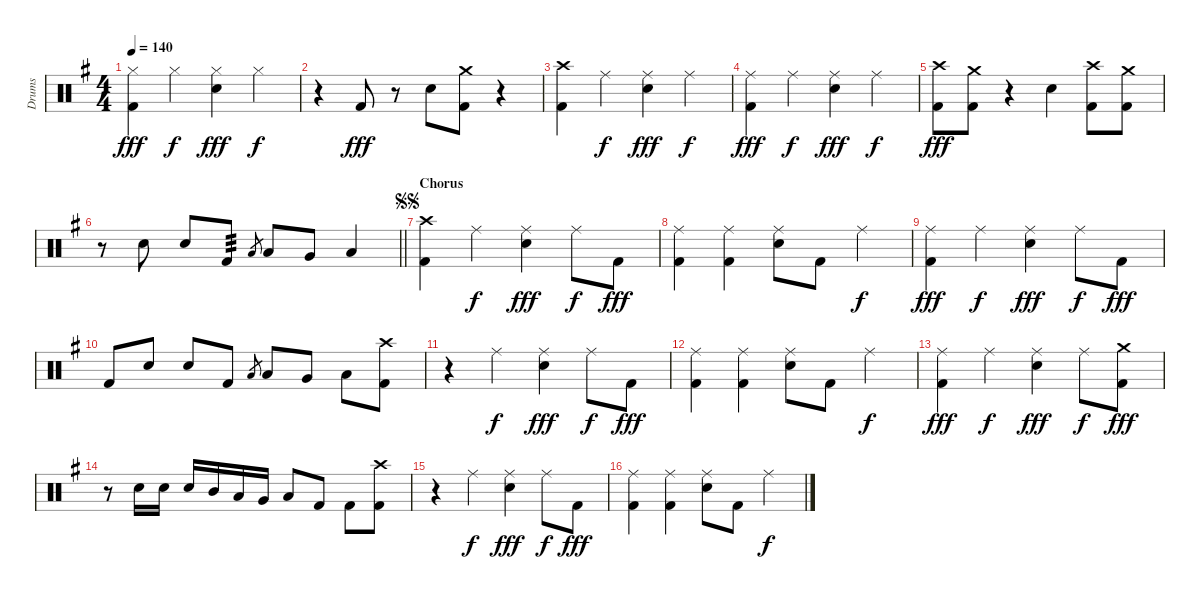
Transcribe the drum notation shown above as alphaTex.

\track ("Drums" "Drums") {instrument percussion}
\staff {score}
\articulation defaults
\ts (4 4)
\tempo 140
\clef neutral
\ks eminor
("Hi-Hat (closed)" "Kick (hit) 2").4{dy fff} "Hi-Hat (closed)".4{dy f} ("Electric Snare (hit)" "Hi-Hat (closed)").4{dy fff} "Hi-Hat (closed)".4{dy f} |
r.4 "Kick (hit) 2".8{dy fff} r.8 "Electric Snare (hit)".8 ("Crash medium (hit)" "Kick (hit) 2").8 r.4 |
("Crash high (hit)" "Kick (hit) 2").4 "Ride (middle)".4{dy f} ("Electric Snare (hit)" "Ride (middle)").4{dy fff} "Ride (middle)".4{dy f} |
("Ride (middle)" "Kick (hit) 2").4{dy fff} "Ride (middle)".4{dy f} ("Electric Snare (hit)" "Ride (middle)").4{dy fff} "Ride (middle)".4{dy f} |
("Crash high (hit)" "Kick (hit) 2").8{dy fff} ("Crash medium (hit)" "Kick (hit) 2").8 r.4 "Electric Snare (hit)".4 ("Crash high (hit)" "Kick (hit) 2").8 ("Crash medium (hit)" "Kick (hit) 2").8 |
\barLineRight lightlight
r.8 "Electric Snare (hit)".8 "Electric Snare (hit)".8 "Kick (hit) 2".8{tp 3} "Low Tom (hit)".8{gr} "Low Tom (hit)".8 "Very Low Tom (hit)".8 "Low Floor Tom (hit)".4 |
\section ("" "Chorus")
\jump segnosegno
("Crash high (hit)" "Kick (hit) 2").4 "Ride (middle)".4{dy f} ("Electric Snare (hit)" "Ride (middle)").4{dy fff} "Ride (middle)".8{dy f} "Kick (hit) 2".8{dy fff} |
("Ride (middle)" "Kick (hit) 2").4 ("Ride (middle)" "Kick (hit) 2").4 ("Electric Snare (hit)" "Ride (middle)").8 "Kick (hit) 2".8 "Ride (middle)".4{dy f} |
("Ride (middle)" "Kick (hit) 2").4{dy fff} "Ride (middle)".4{dy f} ("Electric Snare (hit)" "Ride (middle)").4{dy fff} "Ride (middle)".8{dy f} "Kick (hit) 2".8{dy fff} |
"Kick (hit) 2".8 "Electric Snare (hit)".8 "Electric Snare (hit)".8 "Kick (hit) 2".8 "Low Tom (hit)".8{gr} "Low Tom (hit)".8 "Very Low Tom (hit)".8 "Low Floor Tom (hit)".8 ("Crash high (hit)" "Kick (hit) 2").8 |
r.4 "Ride (middle)".4{dy f} ("Electric Snare (hit)" "Ride (middle)").4{dy fff} "Ride (middle)".8{dy f} "Kick (hit) 2".8{dy fff} |
("Ride (middle)" "Kick (hit) 2").4 ("Ride (middle)" "Kick (hit) 2").4 ("Electric Snare (hit)" "Ride (middle)").8 "Kick (hit) 2".8 "Ride (middle)".4{dy f} |
("Ride (middle)" "Kick (hit) 2").4{dy fff} "Ride (middle)".4{dy f} ("Electric Snare (hit)" "Ride (middle)").4{dy fff} "Ride (middle)".8{dy f} ("Crash medium (hit)" "Kick (hit) 2").8{dy fff} |
r.8 "Electric Snare (hit)".16 "Electric Snare (hit)".16 "Electric Snare (hit)".16 "Mid Tom (hit)".16 "Low Tom (hit)".16 "Very Low Tom (hit)".16 "Low Floor Tom (hit)".8 "Kick (hit) 2".8 "Kick (hit) 2".8 ("Crash high (hit)" "Kick (hit) 2").8 |
r.4 "Ride (middle)".4{dy f} ("Electric Snare (hit)" "Ride (middle)").4{dy fff} "Ride (middle)".8{dy f} "Kick (hit) 2".8{dy fff} |
("Ride (middle)" "Kick (hit) 2").4 ("Ride (middle)" "Kick (hit) 2").4 ("Electric Snare (hit)" "Ride (middle)").8 "Kick (hit) 2".8 "Ride (middle)".4{dy f}
